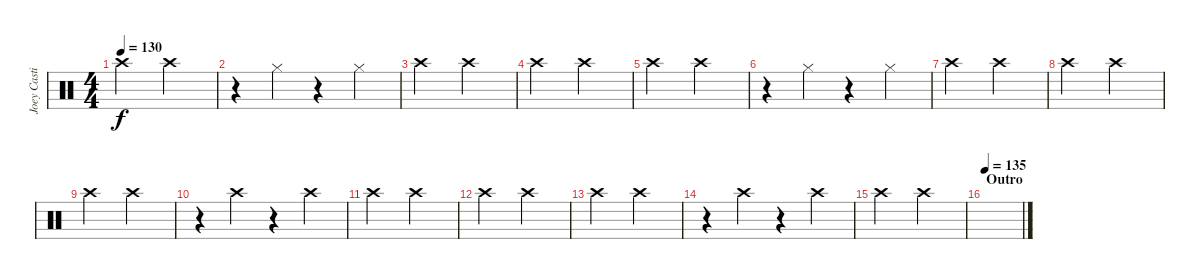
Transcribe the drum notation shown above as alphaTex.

\track ("Joey Castillo" "Joey Casti") {instrument percussion}
\staff {score}
\articulation defaults
\ts (4 4)
\tempo 130
\clef neutral
\ks c "Crash high (hit)".2{dy f} "Crash high (hit)".2
|
r.4 "Hi-Hat (closed)".4 r.4 "Hi-Hat (closed)".4 |
"Crash high (hit)".2 "Crash high (hit)".2 |
"Crash high (hit)".2 "Crash high (hit)".2 |
"Crash high (hit)".2 "Crash high (hit)".2 |
r.4 "Hi-Hat (closed)".4 r.4 "Hi-Hat (closed)".4 |
"Crash high (hit)".2 "Crash high (hit)".2 |
"Crash high (hit)".2 "Crash high (hit)".2 |
"Crash high (hit)".2 "Crash high (hit)".2 |
r.4 "Crash high (hit)".4 r.4 "Crash high (hit)".4 |
"Crash high (hit)".2 "Crash high (hit)".2 |
"Crash high (hit)".2 "Crash high (hit)".2 |
"Crash high (hit)".2 "Crash high (hit)".2 |
r.4 "Crash high (hit)".4 r.4 "Crash high (hit)".4 |
"Crash high (hit)".2 "Crash high (hit)".2 |
\section ("" "Outro")
\tempo 135
